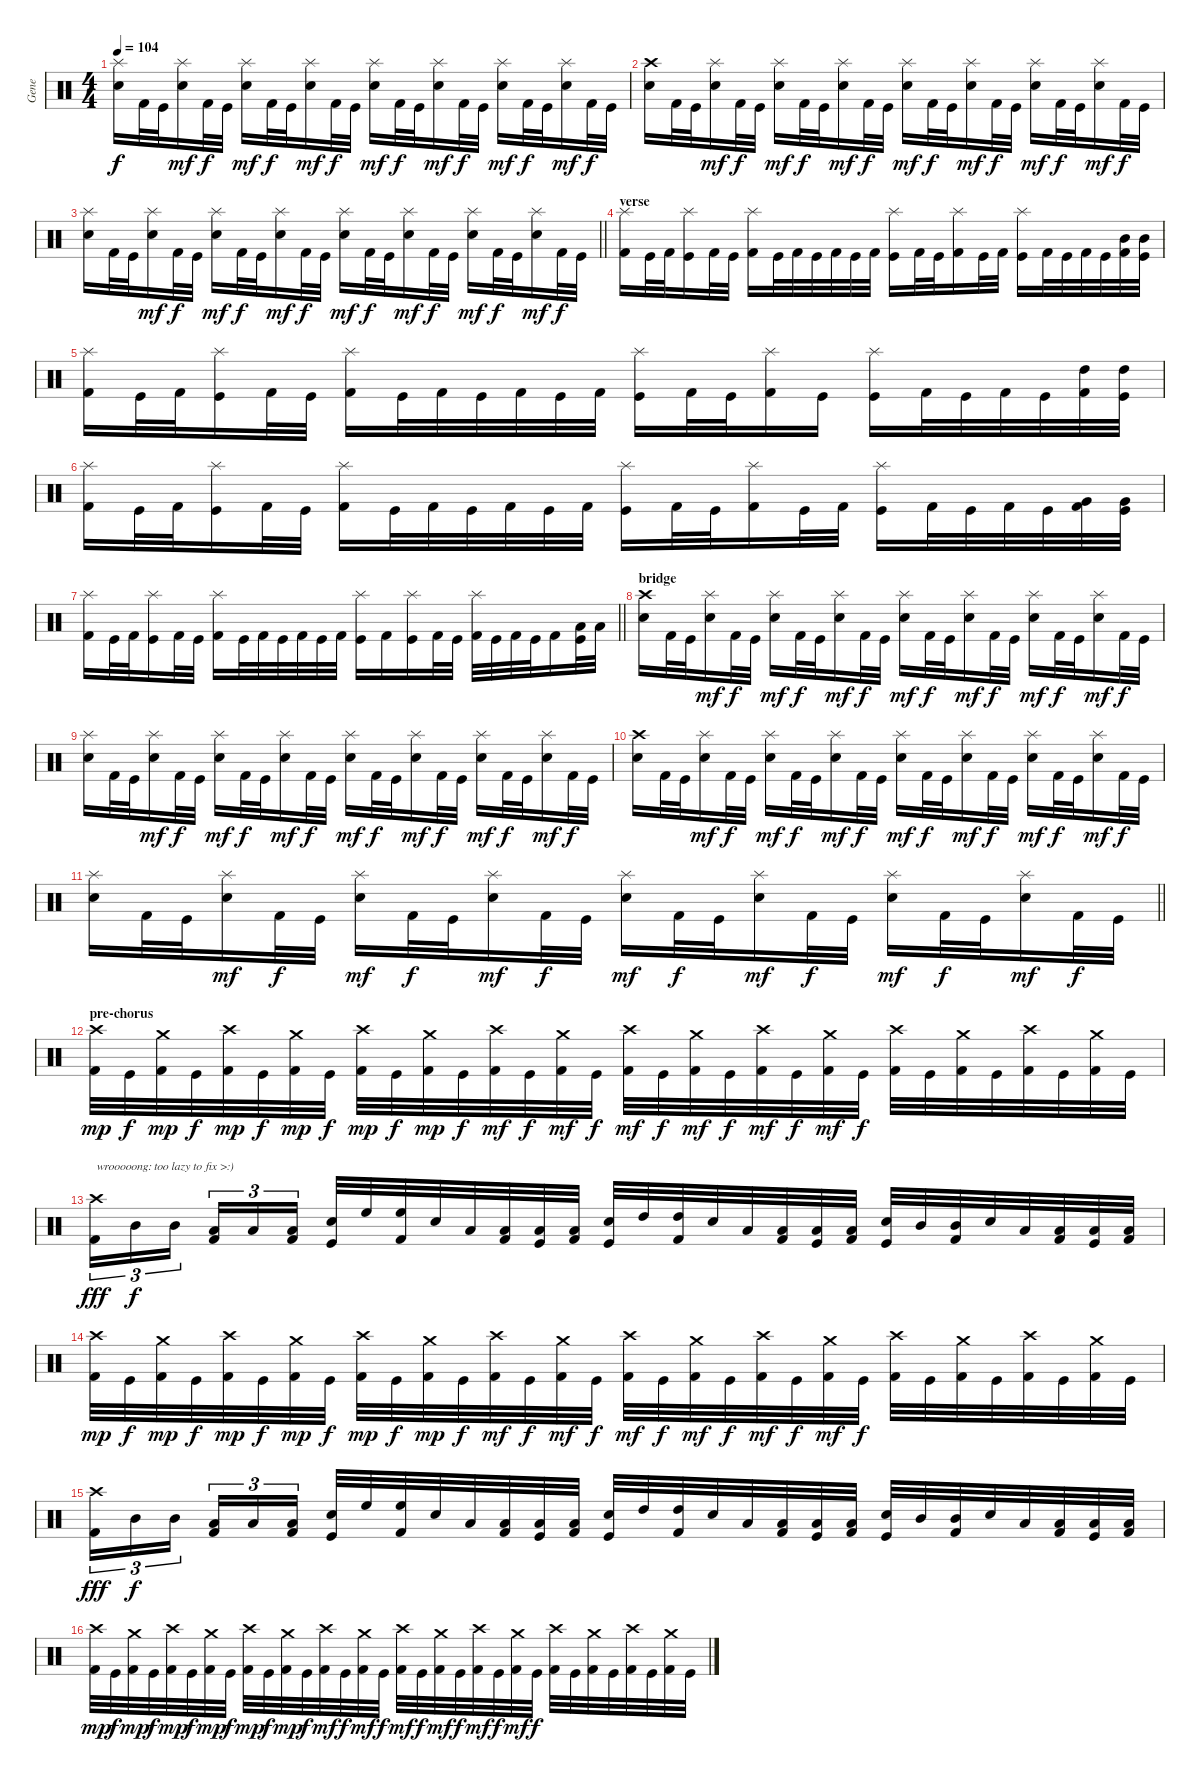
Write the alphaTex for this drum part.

\track ("Gene" "Gene") {instrument percussion}
\staff {score}
\articulation defaults
\ts (4 4)
\tempo 104
\clef neutral
\ks c
("Splash (hit)" "Snare (hit) 2").16{dy f} "Kick (hit) 2".32 "Kick (hit)".32 ("Splash (hit)" "Snare (hit) 2").16{dy mf} "Kick (hit) 2".32{dy f} "Kick (hit)".32 ("Splash (hit)" "Snare (hit) 2").16{dy mf} "Kick (hit) 2".32{dy f} "Kick (hit)".32 ("Splash (hit)" "Snare (hit) 2").16{dy mf} "Kick (hit) 2".32{dy f} "Kick (hit)".32 ("Splash (hit)" "Snare (hit) 2").16{dy mf} "Kick (hit) 2".32{dy f} "Kick (hit)".32 ("Splash (hit)" "Snare (hit) 2").16{dy mf} "Kick (hit) 2".32{dy f} "Kick (hit)".32 ("Splash (hit)" "Snare (hit) 2").16{dy mf} "Kick (hit) 2".32{dy f} "Kick (hit)".32 ("Splash (hit)" "Snare (hit) 2").16{dy mf} "Kick (hit) 2".32{dy f} "Kick (hit)".32 |
("Crash high (hit)" "Snare (hit) 2").16 "Kick (hit) 2".32 "Kick (hit)".32 ("Splash (hit)" "Snare (hit) 2").16{dy mf} "Kick (hit) 2".32{dy f} "Kick (hit)".32 ("Splash (hit)" "Snare (hit) 2").16{dy mf} "Kick (hit) 2".32{dy f} "Kick (hit)".32 ("Splash (hit)" "Snare (hit) 2").16{dy mf} "Kick (hit) 2".32{dy f} "Kick (hit)".32 ("Splash (hit)" "Snare (hit) 2").16{dy mf} "Kick (hit) 2".32{dy f} "Kick (hit)".32 ("Splash (hit)" "Snare (hit) 2").16{dy mf} "Kick (hit) 2".32{dy f} "Kick (hit)".32 ("Splash (hit)" "Snare (hit) 2").16{dy mf} "Kick (hit) 2".32{dy f} "Kick (hit)".32 ("Splash (hit)" "Snare (hit) 2").16{dy mf} "Kick (hit) 2".32{dy f} "Kick (hit)".32 |
\barLineRight lightlight
("Splash (hit)" "Snare (hit) 2").16 "Kick (hit) 2".32 "Kick (hit)".32 ("Splash (hit)" "Snare (hit) 2").16{dy mf} "Kick (hit) 2".32{dy f} "Kick (hit)".32 ("Splash (hit)" "Snare (hit) 2").16{dy mf} "Kick (hit) 2".32{dy f} "Kick (hit)".32 ("Splash (hit)" "Snare (hit) 2").16{dy mf} "Kick (hit) 2".32{dy f} "Kick (hit)".32 ("Splash (hit)" "Snare (hit) 2").16{dy mf} "Kick (hit) 2".32{dy f} "Kick (hit)".32 ("Splash (hit)" "Snare (hit) 2").16{dy mf} "Kick (hit) 2".32{dy f} "Kick (hit)".32 ("Splash (hit)" "Snare (hit) 2").16{dy mf} "Kick (hit) 2".32{dy f} "Kick (hit)".32 ("Splash (hit)" "Snare (hit) 2").16{dy mf} "Kick (hit) 2".32{dy f} "Kick (hit)".32 |
\section ("" "verse")
("Splash (hit)" "Kick (hit) 2").16 "Kick (hit)".32 "Kick (hit) 2".32 ("Splash (hit)" "Kick (hit)").16 "Kick (hit) 2".32 "Kick (hit)".32 ("Splash (hit)" "Kick (hit) 2").16 "Kick (hit)".32 "Kick (hit) 2".32 "Kick (hit)".32 "Kick (hit) 2".32 "Kick (hit)".32 "Kick (hit) 2".32 ("Splash (hit)" "Kick (hit)").16 "Kick (hit) 2".32 "Kick (hit)".32 ("Splash (hit)" "Kick (hit) 2").16 "Kick (hit)".32 "Kick (hit) 2".32 ("Splash (hit)" "Kick (hit)").16 "Kick (hit) 2".32 "Kick (hit)".32 "Kick (hit) 2".32 "Kick (hit)".32 ("Mid Tom (hit)" "Kick (hit) 2").32 ("Mid Tom (hit)" "Kick (hit)").32 |
("Splash (hit)" "Kick (hit) 2").16 "Kick (hit)".32 "Kick (hit) 2".32 ("Splash (hit)" "Kick (hit)").16 "Kick (hit) 2".32 "Kick (hit)".32 ("Splash (hit)" "Kick (hit) 2").16 "Kick (hit)".32 "Kick (hit) 2".32 "Kick (hit)".32 "Kick (hit) 2".32 "Kick (hit)".32 "Kick (hit) 2".32 ("Splash (hit)" "Kick (hit)").16 "Kick (hit) 2".32 "Kick (hit)".32 ("Splash (hit)" "Kick (hit) 2").16 "Kick (hit)".16 ("Splash (hit)" "Kick (hit)").16 "Kick (hit) 2".32 "Kick (hit)".32 "Kick (hit) 2".32 "Kick (hit)".32 ("High Tom (hit)" "Kick (hit) 2").32 ("High Tom (hit)" "Kick (hit)").32 |
("Splash (hit)" "Kick (hit) 2").16 "Kick (hit)".32 "Kick (hit) 2".32 ("Splash (hit)" "Kick (hit)").16 "Kick (hit) 2".32 "Kick (hit)".32 ("Splash (hit)" "Kick (hit) 2").16 "Kick (hit)".32 "Kick (hit) 2".32 "Kick (hit)".32 "Kick (hit) 2".32 "Kick (hit)".32 "Kick (hit) 2".32 ("Splash (hit)" "Kick (hit)").16 "Kick (hit) 2".32 "Kick (hit)".32 ("Splash (hit)" "Kick (hit) 2").16 "Kick (hit)".32 "Kick (hit) 2".32 ("Splash (hit)" "Kick (hit)").16 "Kick (hit) 2".32 "Kick (hit)".32 "Kick (hit) 2".32 "Kick (hit)".32 ("Very Low Tom (hit)" "Kick (hit) 2").32 ("Very Low Tom (hit)" "Kick (hit)").32 |
\barLineRight lightlight
("Splash (hit)" "Kick (hit) 2").16 "Kick (hit)".32 "Kick (hit) 2".32 ("Splash (hit)" "Kick (hit)").16 "Kick (hit) 2".32 "Kick (hit)".32 ("Splash (hit)" "Kick (hit) 2").16 "Kick (hit)".32 "Kick (hit) 2".32 "Kick (hit)".32 "Kick (hit) 2".32 "Kick (hit)".32 "Kick (hit) 2".32 ("Splash (hit)" "Kick (hit)").16 "Kick (hit) 2".16 ("Splash (hit)" "Kick (hit)").16 "Kick (hit) 2".32 "Kick (hit)".32 ("Splash (hit)" "Kick (hit) 2").32 "Kick (hit)".32 "Kick (hit) 2".32 "Kick (hit)".32 "Kick (hit) 2".16 ("Low Tom (hit)" "Kick (hit)").32 "Low Tom (hit)".32 |
\section ("" "bridge")
("Crash high (hit)" "Snare (hit) 2").16 "Kick (hit) 2".32 "Kick (hit)".32 ("Splash (hit)" "Snare (hit) 2").16{dy mf} "Kick (hit) 2".32{dy f} "Kick (hit)".32 ("Splash (hit)" "Snare (hit) 2").16{dy mf} "Kick (hit) 2".32{dy f} "Kick (hit)".32 ("Splash (hit)" "Snare (hit) 2").16{dy mf} "Kick (hit) 2".32{dy f} "Kick (hit)".32 ("Splash (hit)" "Snare (hit) 2").16{dy mf} "Kick (hit) 2".32{dy f} "Kick (hit)".32 ("Splash (hit)" "Snare (hit) 2").16{dy mf} "Kick (hit) 2".32{dy f} "Kick (hit)".32 ("Splash (hit)" "Snare (hit) 2").16{dy mf} "Kick (hit) 2".32{dy f} "Kick (hit)".32 ("Splash (hit)" "Snare (hit) 2").16{dy mf} "Kick (hit) 2".32{dy f} "Kick (hit)".32 |
("Splash (hit)" "Snare (hit) 2").16 "Kick (hit) 2".32 "Kick (hit)".32 ("Splash (hit)" "Snare (hit) 2").16{dy mf} "Kick (hit) 2".32{dy f} "Kick (hit)".32 ("Splash (hit)" "Snare (hit) 2").16{dy mf} "Kick (hit) 2".32{dy f} "Kick (hit)".32 ("Splash (hit)" "Snare (hit) 2").16{dy mf} "Kick (hit) 2".32{dy f} "Kick (hit)".32 ("Splash (hit)" "Snare (hit) 2").16{dy mf} "Kick (hit) 2".32{dy f} "Kick (hit)".32 ("Splash (hit)" "Snare (hit) 2").16{dy mf} "Kick (hit) 2".32{dy f} "Kick (hit)".32 ("Splash (hit)" "Snare (hit) 2").16{dy mf} "Kick (hit) 2".32{dy f} "Kick (hit)".32 ("Splash (hit)" "Snare (hit) 2").16{dy mf} "Kick (hit) 2".32{dy f} "Kick (hit)".32 |
("Crash high (hit)" "Snare (hit) 2").16 "Kick (hit) 2".32 "Kick (hit)".32 ("Splash (hit)" "Snare (hit) 2").16{dy mf} "Kick (hit) 2".32{dy f} "Kick (hit)".32 ("Splash (hit)" "Snare (hit) 2").16{dy mf} "Kick (hit) 2".32{dy f} "Kick (hit)".32 ("Splash (hit)" "Snare (hit) 2").16{dy mf} "Kick (hit) 2".32{dy f} "Kick (hit)".32 ("Splash (hit)" "Snare (hit) 2").16{dy mf} "Kick (hit) 2".32{dy f} "Kick (hit)".32 ("Splash (hit)" "Snare (hit) 2").16{dy mf} "Kick (hit) 2".32{dy f} "Kick (hit)".32 ("Splash (hit)" "Snare (hit) 2").16{dy mf} "Kick (hit) 2".32{dy f} "Kick (hit)".32 ("Splash (hit)" "Snare (hit) 2").16{dy mf} "Kick (hit) 2".32{dy f} "Kick (hit)".32 |
\barLineRight lightlight
("Splash (hit)" "Snare (hit) 2").16 "Kick (hit) 2".32 "Kick (hit)".32 ("Splash (hit)" "Snare (hit) 2").16{dy mf} "Kick (hit) 2".32{dy f} "Kick (hit)".32 ("Splash (hit)" "Snare (hit) 2").16{dy mf} "Kick (hit) 2".32{dy f} "Kick (hit)".32 ("Splash (hit)" "Snare (hit) 2").16{dy mf} "Kick (hit) 2".32{dy f} "Kick (hit)".32 ("Splash (hit)" "Snare (hit) 2").16{dy mf} "Kick (hit) 2".32{dy f} "Kick (hit)".32 ("Splash (hit)" "Snare (hit) 2").16{dy mf} "Kick (hit) 2".32{dy f} "Kick (hit)".32 ("Splash (hit)" "Snare (hit) 2").16{dy mf} "Kick (hit) 2".32{dy f} "Kick (hit)".32 ("Splash (hit)" "Snare (hit) 2").16{dy mf} "Kick (hit) 2".32{dy f} "Kick (hit)".32 |
\section ("" "pre-chorus")
("Crash high (hit)" "Kick (hit) 2").32{dy mp} "Kick (hit)".32{dy f} ("Crash medium (hit)" "Kick (hit) 2").32{dy mp} "Kick (hit)".32{dy f} ("Crash high (hit)" "Kick (hit) 2").32{dy mp} "Kick (hit)".32{dy f} ("Crash medium (hit)" "Kick (hit) 2").32{dy mp} "Kick (hit)".32{dy f} ("Crash high (hit)" "Kick (hit) 2").32{dy mp} "Kick (hit)".32{dy f} ("Crash medium (hit)" "Kick (hit) 2").32{dy mp} "Kick (hit)".32{dy f} ("Crash high (hit)" "Kick (hit) 2").32{dy mf} "Kick (hit)".32{dy f} ("Crash medium (hit)" "Kick (hit) 2").32{dy mf} "Kick (hit)".32{dy f} ("Crash high (hit)" "Kick (hit) 2").32{dy mf} "Kick (hit)".32{dy f} ("Crash medium (hit)" "Kick (hit) 2").32{dy mf} "Kick (hit)".32{dy f} ("Crash high (hit)" "Kick (hit) 2").32{dy mf} "Kick (hit)".32{dy f} ("Crash medium (hit)" "Kick (hit) 2").32{dy mf} "Kick (hit)".32{dy f} ("Crash high (hit)" "Kick (hit) 2").32 "Kick (hit)".32 ("Crash medium (hit)" "Kick (hit) 2").32 "Kick (hit)".32 ("Crash high (hit)" "Kick (hit) 2").32 "Kick (hit)".32 ("Crash medium (hit)" "Kick (hit) 2").32 "Kick (hit)".32 |
("Crash high (hit)" "Kick (hit) 2").16{tu (3 2) txt "wrooooong: too lazy to fix >:)" dy fff} "Mid Tom (hit)".16{tu (3 2) dy f} "Mid Tom (hit)".16{tu (3 2) beam splitsecondary} ("Low Tom (hit)" "Kick (hit) 2").16{tu (3 2)} "Low Tom (hit)".16{tu (3 2)} ("Low Tom (hit)" "Kick (hit) 2").16{tu (3 2)} ("Electric Snare (hit)" "Kick (hit)").32 "High Floor Tom (hit)".32 ("High Floor Tom (hit)" "Kick (hit) 2").32 "Electric Snare (hit)".32 "Low Tom (hit)".32 ("Low Tom (hit)" "Kick (hit) 2").32 ("Low Tom (hit)" "Kick (hit)").32 ("Low Tom (hit)" "Kick (hit) 2").32 ("Electric Snare (hit)" "Kick (hit)").32 "High Tom (hit)".32 ("High Tom (hit)" "Kick (hit) 2").32 "Electric Snare (hit)".32 "Low Tom (hit)".32 ("Low Tom (hit)" "Kick (hit) 2").32 ("Low Tom (hit)" "Kick (hit)").32 ("Low Tom (hit)" "Kick (hit) 2").32 ("Electric Snare (hit)" "Kick (hit)").32 "Mid Tom (hit)".32 ("Mid Tom (hit)" "Kick (hit) 2").32 "Electric Snare (hit)".32 "Low Tom (hit)".32 ("Low Tom (hit)" "Kick (hit) 2").32 ("Low Tom (hit)" "Kick (hit)").32 ("Low Tom (hit)" "Kick (hit) 2").32 |
("Crash high (hit)" "Kick (hit) 2").32{dy mp} "Kick (hit)".32{dy f} ("Crash medium (hit)" "Kick (hit) 2").32{dy mp} "Kick (hit)".32{dy f} ("Crash high (hit)" "Kick (hit) 2").32{dy mp} "Kick (hit)".32{dy f} ("Crash medium (hit)" "Kick (hit) 2").32{dy mp} "Kick (hit)".32{dy f} ("Crash high (hit)" "Kick (hit) 2").32{dy mp} "Kick (hit)".32{dy f} ("Crash medium (hit)" "Kick (hit) 2").32{dy mp} "Kick (hit)".32{dy f} ("Crash high (hit)" "Kick (hit) 2").32{dy mf} "Kick (hit)".32{dy f} ("Crash medium (hit)" "Kick (hit) 2").32{dy mf} "Kick (hit)".32{dy f} ("Crash high (hit)" "Kick (hit) 2").32{dy mf} "Kick (hit)".32{dy f} ("Crash medium (hit)" "Kick (hit) 2").32{dy mf} "Kick (hit)".32{dy f} ("Crash high (hit)" "Kick (hit) 2").32{dy mf} "Kick (hit)".32{dy f} ("Crash medium (hit)" "Kick (hit) 2").32{dy mf} "Kick (hit)".32{dy f} ("Crash high (hit)" "Kick (hit) 2").32 "Kick (hit)".32 ("Crash medium (hit)" "Kick (hit) 2").32 "Kick (hit)".32 ("Crash high (hit)" "Kick (hit) 2").32 "Kick (hit)".32 ("Crash medium (hit)" "Kick (hit) 2").32 "Kick (hit)".32 |
("Crash high (hit)" "Kick (hit) 2").16{tu (3 2) dy fff} "Mid Tom (hit)".16{tu (3 2) dy f} "Mid Tom (hit)".16{tu (3 2) beam splitsecondary} ("Low Tom (hit)" "Kick (hit) 2").16{tu (3 2)} "Low Tom (hit)".16{tu (3 2)} ("Low Tom (hit)" "Kick (hit) 2").16{tu (3 2)} ("Electric Snare (hit)" "Kick (hit)").32 "High Floor Tom (hit)".32 ("High Floor Tom (hit)" "Kick (hit) 2").32 "Electric Snare (hit)".32 "Low Tom (hit)".32 ("Low Tom (hit)" "Kick (hit) 2").32 ("Low Tom (hit)" "Kick (hit)").32 ("Low Tom (hit)" "Kick (hit) 2").32 ("Electric Snare (hit)" "Kick (hit)").32 "High Tom (hit)".32 ("High Tom (hit)" "Kick (hit) 2").32 "Electric Snare (hit)".32 "Low Tom (hit)".32 ("Low Tom (hit)" "Kick (hit) 2").32 ("Low Tom (hit)" "Kick (hit)").32 ("Low Tom (hit)" "Kick (hit) 2").32 ("Electric Snare (hit)" "Kick (hit)").32 "Mid Tom (hit)".32 ("Mid Tom (hit)" "Kick (hit) 2").32 "Electric Snare (hit)".32 "Low Tom (hit)".32 ("Low Tom (hit)" "Kick (hit) 2").32 ("Low Tom (hit)" "Kick (hit)").32 ("Low Tom (hit)" "Kick (hit) 2").32 |
("Crash high (hit)" "Kick (hit) 2").32{dy mp} "Kick (hit)".32{dy f} ("Crash medium (hit)" "Kick (hit) 2").32{dy mp} "Kick (hit)".32{dy f} ("Crash high (hit)" "Kick (hit) 2").32{dy mp} "Kick (hit)".32{dy f} ("Crash medium (hit)" "Kick (hit) 2").32{dy mp} "Kick (hit)".32{dy f} ("Crash high (hit)" "Kick (hit) 2").32{dy mp} "Kick (hit)".32{dy f} ("Crash medium (hit)" "Kick (hit) 2").32{dy mp} "Kick (hit)".32{dy f} ("Crash high (hit)" "Kick (hit) 2").32{dy mf} "Kick (hit)".32{dy f} ("Crash medium (hit)" "Kick (hit) 2").32{dy mf} "Kick (hit)".32{dy f} ("Crash high (hit)" "Kick (hit) 2").32{dy mf} "Kick (hit)".32{dy f} ("Crash medium (hit)" "Kick (hit) 2").32{dy mf} "Kick (hit)".32{dy f} ("Crash high (hit)" "Kick (hit) 2").32{dy mf} "Kick (hit)".32{dy f} ("Crash medium (hit)" "Kick (hit) 2").32{dy mf} "Kick (hit)".32{dy f} ("Crash high (hit)" "Kick (hit) 2").32 "Kick (hit)".32 ("Crash medium (hit)" "Kick (hit) 2").32 "Kick (hit)".32 ("Crash high (hit)" "Kick (hit) 2").32 "Kick (hit)".32 ("Crash medium (hit)" "Kick (hit) 2").32 "Kick (hit)".32
